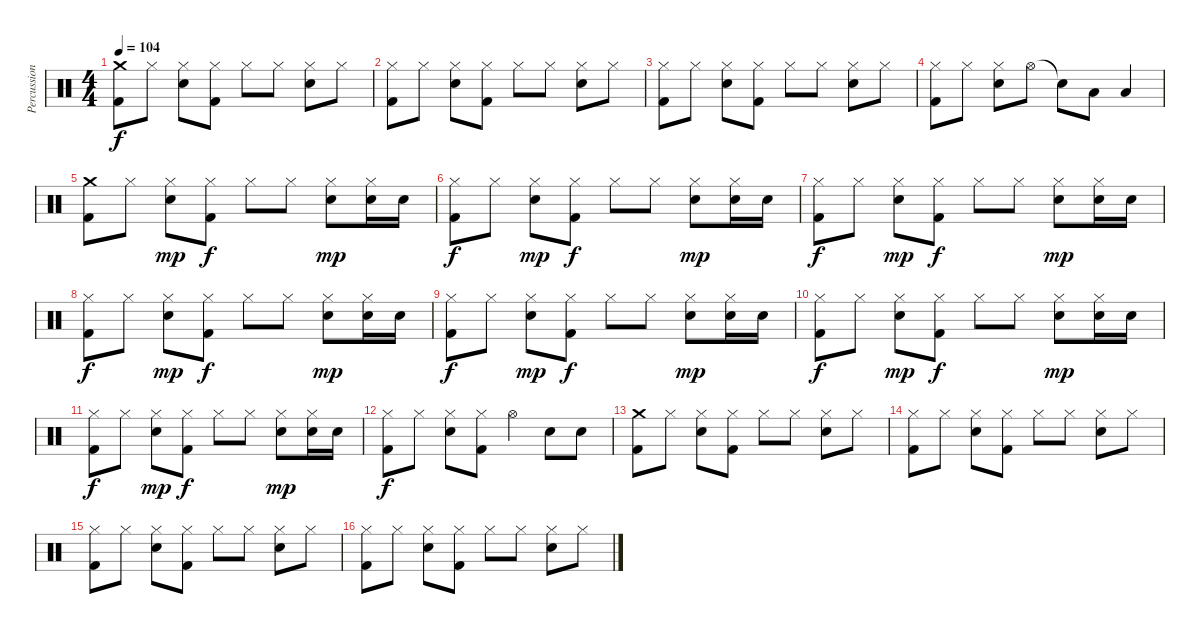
\track ("Percussion" "Percussion") {instrument percussion}
\staff {score}
\articulation defaults
\ts (4 4)
\tempo 104
\clef neutral
\ks c
("Crash medium (hit)" "Kick (hit) 2").8{dy f} "Hi-Hat (closed)".8 ("Hi-Hat (closed)" "Electric Snare (hit)").8 ("Hi-Hat (closed)" "Kick (hit) 2").8 "Hi-Hat (closed)".8 "Hi-Hat (closed)".8 ("Hi-Hat (closed)" "Electric Snare (hit)").8 "Hi-Hat (closed)".8 |
("Hi-Hat (closed)" "Kick (hit) 2").8 "Hi-Hat (closed)".8 ("Hi-Hat (closed)" "Electric Snare (hit)").8 ("Hi-Hat (closed)" "Kick (hit) 2").8 "Hi-Hat (closed)".8 "Hi-Hat (closed)".8 ("Hi-Hat (closed)" "Electric Snare (hit)").8 "Hi-Hat (closed)".8 |
("Hi-Hat (closed)" "Kick (hit) 2").8 "Hi-Hat (closed)".8 ("Hi-Hat (closed)" "Electric Snare (hit)").8 ("Hi-Hat (closed)" "Kick (hit) 2").8 "Hi-Hat (closed)".8 "Hi-Hat (closed)".8 ("Hi-Hat (closed)" "Electric Snare (hit)").8 "Hi-Hat (closed)".8 |
("Hi-Hat (closed)" "Kick (hit) 2").8 "Hi-Hat (closed)".8 ("Hi-Hat (closed)" "Electric Snare (hit)").8 "Hi-Hat (open)".8 "Snare (hit)"{t}.8 "Low Floor Tom (hit)".8 "Low Floor Tom (hit)".4 |
("Crash medium (hit)" "Kick (hit) 2").8 "Hi-Hat (closed)".8 ("Hi-Hat (closed)" "Electric Snare (hit)").8{dy mp} ("Hi-Hat (closed)" "Kick (hit) 2").8{dy f} "Hi-Hat (closed)".8 "Hi-Hat (closed)".8 ("Hi-Hat (closed)" "Electric Snare (hit)").8{dy mp} ("Hi-Hat (closed)" "Electric Snare (hit)").16 "Electric Snare (hit)".16 |
("Hi-Hat (closed)" "Kick (hit) 2").8{dy f} "Hi-Hat (closed)".8 ("Hi-Hat (closed)" "Electric Snare (hit)").8{dy mp} ("Hi-Hat (closed)" "Kick (hit) 2").8{dy f} "Hi-Hat (closed)".8 "Hi-Hat (closed)".8 ("Hi-Hat (closed)" "Electric Snare (hit)").8{dy mp} ("Hi-Hat (closed)" "Electric Snare (hit)").16 "Electric Snare (hit)".16 |
("Hi-Hat (closed)" "Kick (hit) 2").8{dy f} "Hi-Hat (closed)".8 ("Hi-Hat (closed)" "Electric Snare (hit)").8{dy mp} ("Hi-Hat (closed)" "Kick (hit) 2").8{dy f} "Hi-Hat (closed)".8 "Hi-Hat (closed)".8 ("Hi-Hat (closed)" "Electric Snare (hit)").8{dy mp} ("Hi-Hat (closed)" "Electric Snare (hit)").16 "Electric Snare (hit)".16 |
("Hi-Hat (closed)" "Kick (hit) 2").8{dy f} "Hi-Hat (closed)".8 ("Hi-Hat (closed)" "Electric Snare (hit)").8{dy mp} ("Hi-Hat (closed)" "Kick (hit) 2").8{dy f} "Hi-Hat (closed)".8 "Hi-Hat (closed)".8 ("Hi-Hat (closed)" "Electric Snare (hit)").8{dy mp} ("Hi-Hat (closed)" "Electric Snare (hit)").16 "Electric Snare (hit)".16 |
("Hi-Hat (closed)" "Kick (hit) 2").8{dy f} "Hi-Hat (closed)".8 ("Hi-Hat (closed)" "Electric Snare (hit)").8{dy mp} ("Hi-Hat (closed)" "Kick (hit) 2").8{dy f} "Hi-Hat (closed)".8 "Hi-Hat (closed)".8 ("Hi-Hat (closed)" "Electric Snare (hit)").8{dy mp} ("Hi-Hat (closed)" "Electric Snare (hit)").16 "Electric Snare (hit)".16 |
("Hi-Hat (closed)" "Kick (hit) 2").8{dy f} "Hi-Hat (closed)".8 ("Hi-Hat (closed)" "Electric Snare (hit)").8{dy mp} ("Hi-Hat (closed)" "Kick (hit) 2").8{dy f} "Hi-Hat (closed)".8 "Hi-Hat (closed)".8 ("Hi-Hat (closed)" "Electric Snare (hit)").8{dy mp} ("Hi-Hat (closed)" "Electric Snare (hit)").16 "Electric Snare (hit)".16 |
("Hi-Hat (closed)" "Kick (hit) 2").8{dy f} "Hi-Hat (closed)".8 ("Hi-Hat (closed)" "Electric Snare (hit)").8{dy mp} ("Hi-Hat (closed)" "Kick (hit) 2").8{dy f} "Hi-Hat (closed)".8 "Hi-Hat (closed)".8 ("Hi-Hat (closed)" "Electric Snare (hit)").8{dy mp} ("Hi-Hat (closed)" "Electric Snare (hit)").16 "Electric Snare (hit)".16 |
("Hi-Hat (closed)" "Kick (hit) 2").8{dy f} "Hi-Hat (closed)".8 ("Hi-Hat (closed)" "Electric Snare (hit)").8 ("Hi-Hat (closed)" "Kick (hit) 2").8 "Hi-Hat (open)".4 "Electric Snare (hit)".8 "Electric Snare (hit)".8 |
("Crash medium (hit)" "Kick (hit) 2").8 "Hi-Hat (closed)".8 ("Hi-Hat (closed)" "Electric Snare (hit)").8 ("Hi-Hat (closed)" "Kick (hit) 2").8 "Hi-Hat (closed)".8 "Hi-Hat (closed)".8 ("Hi-Hat (closed)" "Electric Snare (hit)").8 "Hi-Hat (closed)".8 |
("Hi-Hat (closed)" "Kick (hit) 2").8 "Hi-Hat (closed)".8 ("Hi-Hat (closed)" "Electric Snare (hit)").8 ("Hi-Hat (closed)" "Kick (hit) 2").8 "Hi-Hat (closed)".8 "Hi-Hat (closed)".8 ("Hi-Hat (closed)" "Electric Snare (hit)").8 "Hi-Hat (closed)".8 |
("Hi-Hat (closed)" "Kick (hit) 2").8 "Hi-Hat (closed)".8 ("Hi-Hat (closed)" "Electric Snare (hit)").8 ("Hi-Hat (closed)" "Kick (hit) 2").8 "Hi-Hat (closed)".8 "Hi-Hat (closed)".8 ("Hi-Hat (closed)" "Electric Snare (hit)").8 "Hi-Hat (closed)".8 |
("Hi-Hat (closed)" "Kick (hit) 2").8 "Hi-Hat (closed)".8 ("Hi-Hat (closed)" "Electric Snare (hit)").8 ("Hi-Hat (closed)" "Kick (hit) 2").8 "Hi-Hat (closed)".8 "Hi-Hat (closed)".8 ("Hi-Hat (closed)" "Electric Snare (hit)").8 "Hi-Hat (closed)".8
